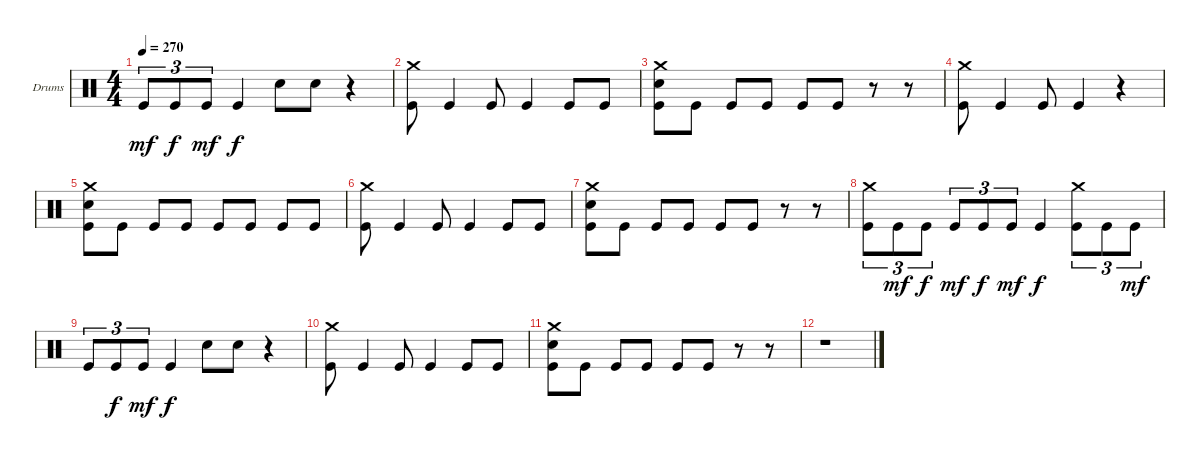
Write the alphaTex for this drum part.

\bracketExtendMode groupsimilarinstruments
\firstSystemTrackNameOrientation horizontal
\otherSystemsTrackNameOrientation horizontal
\track ("Drumkit" "Drums") {instrument percussion}
\staff {score}
\articulation defaults
\ts (4 4)
\tempo 270
\clef neutral
\ks c "Kick (hit)".8{tu (3 2) dy mf} "Kick (hit)".8{tu (3 2) dy f} "Kick (hit)".8{tu (3 2) dy mf} "Kick (hit)".4{dy f} "Snare (hit) 2".8 "Snare (hit) 2".8
r.4 |
("Crash medium (hit)" "Kick (hit)").8 "Kick (hit)".4 "Kick (hit)".8 "Kick (hit)".4 "Kick (hit)".8 "Kick (hit)".8 |
("Crash medium (hit)" "Snare (hit) 2" "Kick (hit)").8 "Kick (hit)".8 "Kick (hit)".8 "Kick (hit)".8 "Kick (hit)".8 "Kick (hit)".8 r.8 r.8 |
("Crash medium (hit)" "Kick (hit)").8 "Kick (hit)".4 "Kick (hit)".8 "Kick (hit)".4 r.4 |
("Crash medium (hit)" "Snare (hit) 2" "Kick (hit)").8 "Kick (hit)".8 "Kick (hit)".8 "Kick (hit)".8 "Kick (hit)".8 "Kick (hit)".8 "Kick (hit)".8 "Kick (hit)".8 |
("Crash medium (hit)" "Kick (hit)").8 "Kick (hit)".4 "Kick (hit)".8 "Kick (hit)".4 "Kick (hit)".8 "Kick (hit)".8 |
("Crash medium (hit)" "Snare (hit) 2" "Kick (hit)").8 "Kick (hit)".8 "Kick (hit)".8 "Kick (hit)".8 "Kick (hit)".8 "Kick (hit)".8 r.8 r.8 |
("Crash medium (hit)" "Kick (hit)").8{tu (3 2)} "Kick (hit)".8{tu (3 2) dy mf} "Kick (hit)".8{tu (3 2) dy f} "Kick (hit)".8{tu (3 2) dy mf} "Kick (hit)".8{tu (3 2) dy f} "Kick (hit)".8{tu (3 2) dy mf} "Kick (hit)".4{dy f} ("Crash medium (hit)" "Kick (hit)").8{tu (3 2)} "Kick (hit)".8{tu (3 2)} "Kick (hit)".8{tu (3 2) dy mf} |
"Kick (hit)".8{tu (3 2)} "Kick (hit)".8{tu (3 2) dy f} "Kick (hit)".8{tu (3 2) dy mf} "Kick (hit)".4{dy f} "Snare (hit) 2".8 "Snare (hit) 2".8 r.4 |
("Crash medium (hit)" "Kick (hit)").8 "Kick (hit)".4 "Kick (hit)".8 "Kick (hit)".4 "Kick (hit)".8 "Kick (hit)".8 |
("Crash medium (hit)" "Snare (hit) 2" "Kick (hit)").8 "Kick (hit)".8 "Kick (hit)".8 "Kick (hit)".8 "Kick (hit)".8 "Kick (hit)".8 r.8 r.8 |
r.1
